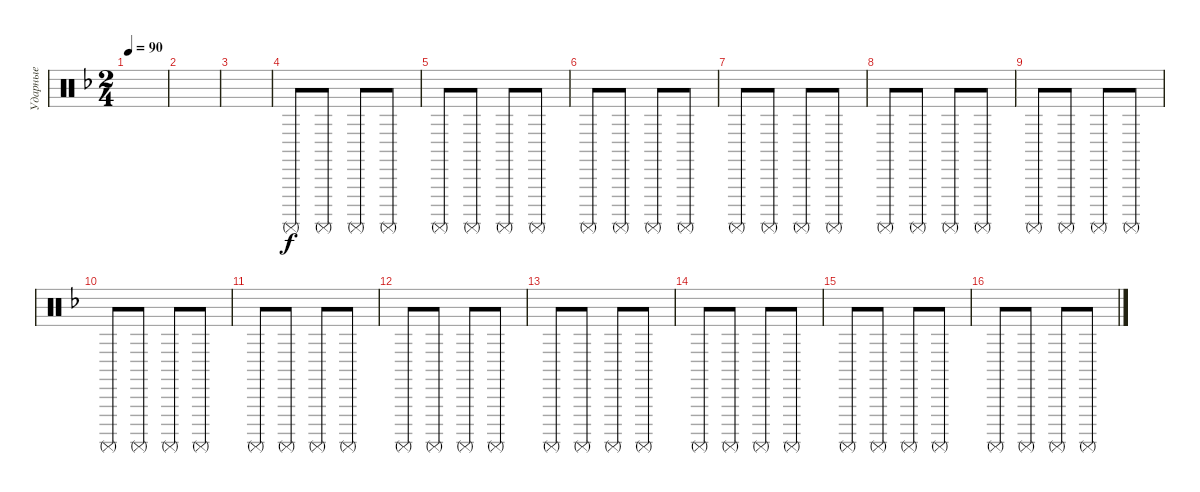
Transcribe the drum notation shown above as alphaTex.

\track ("Ударные" "Ударные") {instrument percussion}
\staff {score}
\articulation defaults
\ts (2 4)
\tempo 90
\clef neutral
\ks dminor
|
|
|
"Surdo (mute)".8 "Surdo (mute)".8 "Surdo (mute)".8 "Surdo (mute)".8 |
"Surdo (mute)".8 "Surdo (mute)".8 "Surdo (mute)".8 "Surdo (mute)".8 |
"Surdo (mute)".8 "Surdo (mute)".8 "Surdo (mute)".8 "Surdo (mute)".8 |
"Surdo (mute)".8 "Surdo (mute)".8 "Surdo (mute)".8 "Surdo (mute)".8 |
"Surdo (mute)".8 "Surdo (mute)".8 "Surdo (mute)".8 "Surdo (mute)".8 |
"Surdo (mute)".8 "Surdo (mute)".8 "Surdo (mute)".8 "Surdo (mute)".8 |
"Surdo (mute)".8 "Surdo (mute)".8 "Surdo (mute)".8 "Surdo (mute)".8 |
"Surdo (mute)".8 "Surdo (mute)".8 "Surdo (mute)".8 "Surdo (mute)".8 |
"Surdo (mute)".8 "Surdo (mute)".8 "Surdo (mute)".8 "Surdo (mute)".8 |
"Surdo (mute)".8 "Surdo (mute)".8 "Surdo (mute)".8 "Surdo (mute)".8 |
"Surdo (mute)".8 "Surdo (mute)".8 "Surdo (mute)".8 "Surdo (mute)".8 |
"Surdo (mute)".8 "Surdo (mute)".8 "Surdo (mute)".8 "Surdo (mute)".8 |
"Surdo (mute)".8 "Surdo (mute)".8 "Surdo (mute)".8 "Surdo (mute)".8
